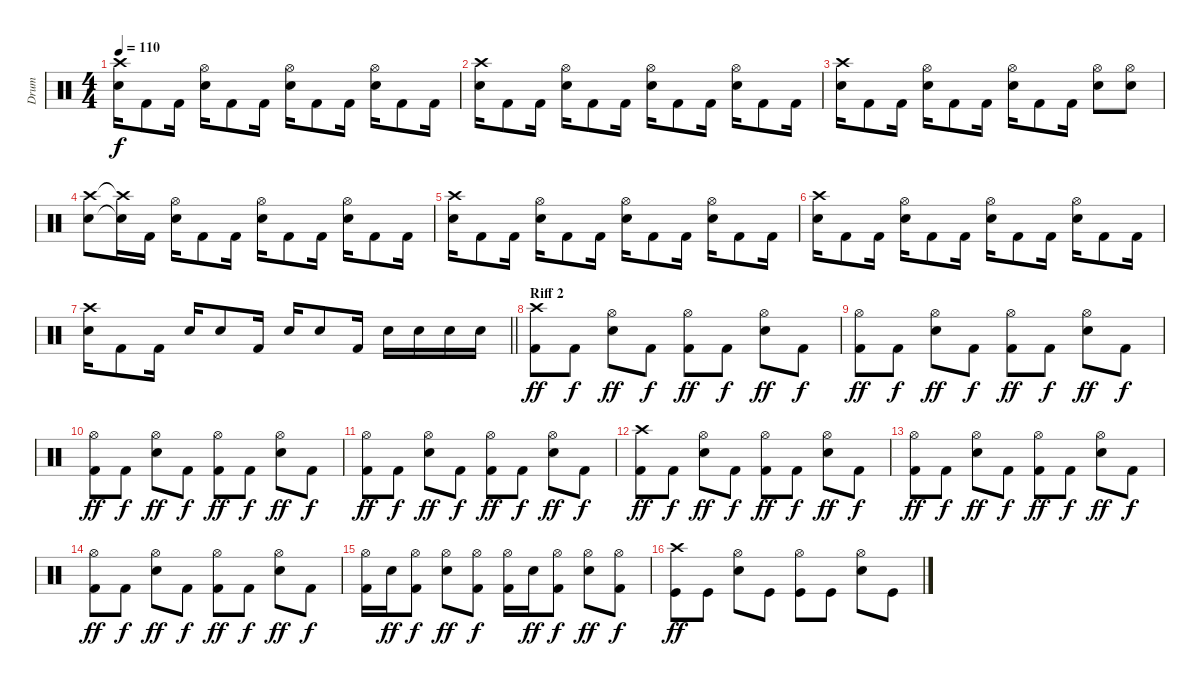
\track ("Drum" "Drum") {instrument percussion}
\staff {score}
\articulation defaults
\ts (4 4)
\tempo 110
\clef neutral
\ks c
("Snare (hit) 2" "Crash high (hit)").16{dy f} "Kick (hit) 2".8 "Kick (hit) 2".16 ("Snare (hit) 2" "Hi-Hat (open)").16 "Kick (hit) 2".8 "Kick (hit) 2".16 ("Snare (hit) 2" "Hi-Hat (open)").16 "Kick (hit) 2".8 "Kick (hit) 2".16 ("Snare (hit) 2" "Hi-Hat (open)").16 "Kick (hit) 2".8 "Kick (hit) 2".16 |
("Snare (hit) 2" "Crash high (hit)").16 "Kick (hit) 2".8 "Kick (hit) 2".16 ("Snare (hit) 2" "Hi-Hat (open)").16 "Kick (hit) 2".8 "Kick (hit) 2".16 ("Snare (hit) 2" "Hi-Hat (open)").16 "Kick (hit) 2".8 "Kick (hit) 2".16 ("Snare (hit) 2" "Hi-Hat (open)").16 "Kick (hit) 2".8 "Kick (hit) 2".16 |
("Snare (hit) 2" "Crash high (hit)").16 "Kick (hit) 2".8 "Kick (hit) 2".16 ("Snare (hit) 2" "Hi-Hat (open)").16 "Kick (hit) 2".8 "Kick (hit) 2".16 ("Snare (hit) 2" "Hi-Hat (open)").16 "Kick (hit) 2".8 "Kick (hit) 2".16 ("Snare (hit) 2" "Hi-Hat (open)").8 ("Snare (hit) 2" "Hi-Hat (open)").8 |
("Snare (hit) 2" "Crash high (hit)").8 ("Snare (hit) 2"{t} "Crash high (hit)"{t}).16 "Kick (hit) 2".16 ("Snare (hit) 2" "Hi-Hat (open)").16 "Kick (hit) 2".8 "Kick (hit) 2".16 ("Snare (hit) 2" "Hi-Hat (open)").16 "Kick (hit) 2".8 "Kick (hit) 2".16 ("Snare (hit) 2" "Hi-Hat (open)").16 "Kick (hit) 2".8 "Kick (hit) 2".16 |
("Snare (hit) 2" "Crash high (hit)").16 "Kick (hit) 2".8 "Kick (hit) 2".16 ("Snare (hit) 2" "Hi-Hat (open)").16 "Kick (hit) 2".8 "Kick (hit) 2".16 ("Snare (hit) 2" "Hi-Hat (open)").16 "Kick (hit) 2".8 "Kick (hit) 2".16 ("Snare (hit) 2" "Hi-Hat (open)").16 "Kick (hit) 2".8 "Kick (hit) 2".16 |
("Snare (hit) 2" "Crash high (hit)").16 "Kick (hit) 2".8 "Kick (hit) 2".16 ("Snare (hit) 2" "Hi-Hat (open)").16 "Kick (hit) 2".8 "Kick (hit) 2".16 ("Snare (hit) 2" "Hi-Hat (open)").16 "Kick (hit) 2".8 "Kick (hit) 2".16 ("Snare (hit) 2" "Hi-Hat (open)").16 "Kick (hit) 2".8 "Kick (hit) 2".16 |
\barLineRight lightlight
("Snare (hit) 2" "Crash high (hit)").16 "Kick (hit) 2".8 "Kick (hit) 2".16 "Snare (hit) 2".16 "Snare (hit) 2".8 "Kick (hit) 2".16 "Snare (hit) 2".16 "Snare (hit) 2".8 "Kick (hit) 2".16 "Snare (hit) 2".16 "Snare (hit) 2".16 "Snare (hit) 2".16 "Snare (hit) 2".16 |
\section ("" "Riff 2")
("Kick (hit) 2" "Crash high (hit)").8{dy ff} "Kick (hit) 2".8{dy f} ("Snare (hit) 2" "Hi-Hat (open)").8{dy ff} "Kick (hit) 2".8{dy f} ("Kick (hit) 2" "Hi-Hat (open)").8{dy ff} "Kick (hit) 2".8{dy f} ("Snare (hit) 2" "Hi-Hat (open)").8{dy ff} "Kick (hit) 2".8{dy f} |
("Kick (hit) 2" "Hi-Hat (open)").8{dy ff} "Kick (hit) 2".8{dy f} ("Snare (hit) 2" "Hi-Hat (open)").8{dy ff} "Kick (hit) 2".8{dy f} ("Kick (hit) 2" "Hi-Hat (open)").8{dy ff} "Kick (hit) 2".8{dy f} ("Snare (hit) 2" "Hi-Hat (open)").8{dy ff} "Kick (hit) 2".8{dy f} |
("Kick (hit) 2" "Hi-Hat (open)").8{dy ff} "Kick (hit) 2".8{dy f} ("Snare (hit) 2" "Hi-Hat (open)").8{dy ff} "Kick (hit) 2".8{dy f} ("Kick (hit) 2" "Hi-Hat (open)").8{dy ff} "Kick (hit) 2".8{dy f} ("Snare (hit) 2" "Hi-Hat (open)").8{dy ff} "Kick (hit) 2".8{dy f} |
("Kick (hit) 2" "Hi-Hat (open)").8{dy ff} "Kick (hit) 2".8{dy f} ("Snare (hit) 2" "Hi-Hat (open)").8{dy ff} "Kick (hit) 2".8{dy f} ("Kick (hit) 2" "Hi-Hat (open)").8{dy ff} "Kick (hit) 2".8{dy f} ("Snare (hit) 2" "Hi-Hat (open)").8{dy ff} "Kick (hit) 2".8{dy f} |
("Kick (hit) 2" "Crash high (hit)").8{dy ff} "Kick (hit) 2".8{dy f} ("Snare (hit) 2" "Hi-Hat (open)").8{dy ff} "Kick (hit) 2".8{dy f} ("Kick (hit) 2" "Hi-Hat (open)").8{dy ff} "Kick (hit) 2".8{dy f} ("Snare (hit) 2" "Hi-Hat (open)").8{dy ff} "Kick (hit) 2".8{dy f} |
("Kick (hit) 2" "Hi-Hat (open)").8{dy ff} "Kick (hit) 2".8{dy f} ("Snare (hit) 2" "Hi-Hat (open)").8{dy ff} "Kick (hit) 2".8{dy f} ("Kick (hit) 2" "Hi-Hat (open)").8{dy ff} "Kick (hit) 2".8{dy f} ("Snare (hit) 2" "Hi-Hat (open)").8{dy ff} "Kick (hit) 2".8{dy f} |
("Kick (hit) 2" "Hi-Hat (open)").8{dy ff} "Kick (hit) 2".8{dy f} ("Snare (hit) 2" "Hi-Hat (open)").8{dy ff} "Kick (hit) 2".8{dy f} ("Kick (hit) 2" "Hi-Hat (open)").8{dy ff} "Kick (hit) 2".8{dy f} ("Snare (hit) 2" "Hi-Hat (open)").8{dy ff} "Kick (hit) 2".8{dy f} |
("Kick (hit) 2" "Hi-Hat (open)").16 "Snare (hit) 2".16{dy ff} ("Kick (hit) 2" "Hi-Hat (open)").8{dy f} ("Snare (hit) 2" "Hi-Hat (open)").8{dy ff} ("Kick (hit) 2" "Hi-Hat (open)").8{dy f} ("Kick (hit) 2" "Hi-Hat (open)").16 "Snare (hit) 2".16{dy ff} ("Kick (hit) 2" "Hi-Hat (open)").8{dy f} ("Snare (hit) 2" "Hi-Hat (open)").8{dy ff} ("Kick (hit) 2" "Hi-Hat (open)").8{dy f} |
("Kick (hit)" "Crash high (hit)").8{dy ff} "Kick (hit)".8 ("Snare (hit) 2" "Hi-Hat (open)").8 "Kick (hit)".8 ("Kick (hit)" "Hi-Hat (open)").8 "Kick (hit)".8 ("Snare (hit) 2" "Hi-Hat (open)").8 "Kick (hit)".8
